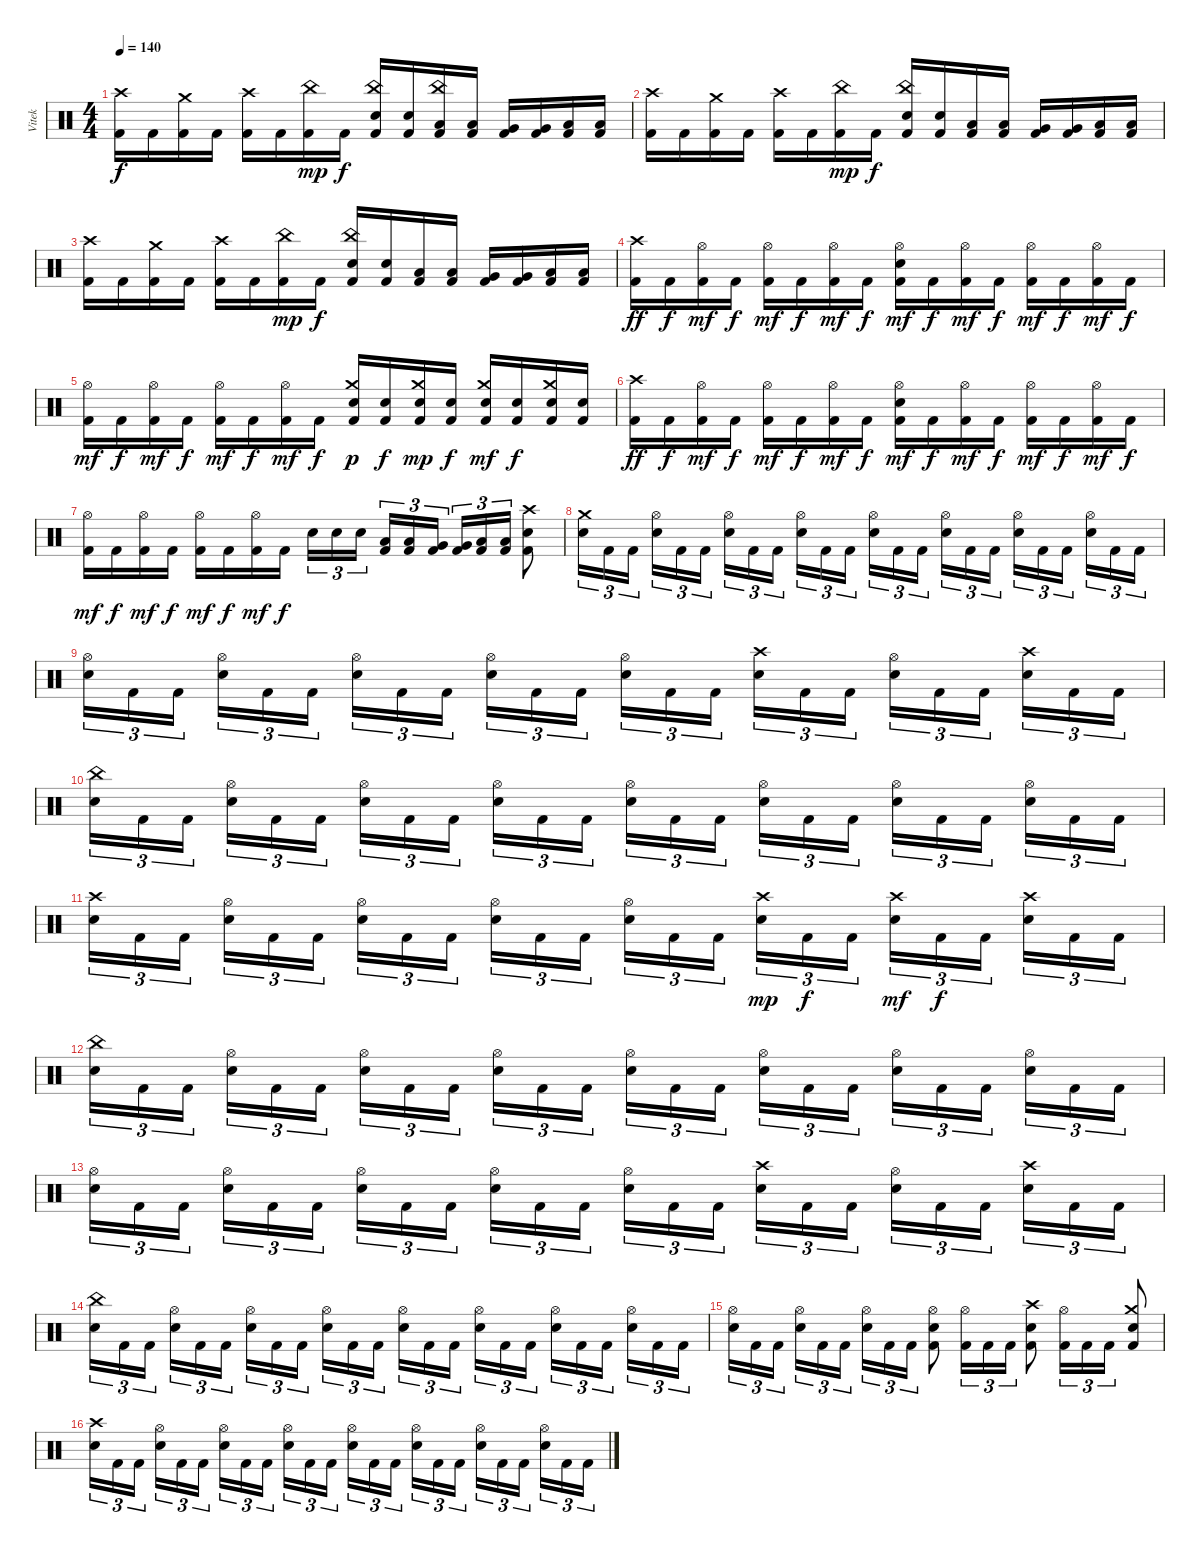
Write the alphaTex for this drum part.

\track ("Vitek" "Vitek") {instrument percussion}
\staff {score}
\articulation defaults
\ts (4 4)
\tempo 140
\clef neutral
\ks c
("Crash high (hit)" "Kick (hit) 2").16{dy f} "Kick (hit) 2".16 ("Crash medium (hit)" "Kick (hit) 2").16 "Kick (hit) 2".16 ("Crash high (hit)" "Kick (hit) 2").16 "Kick (hit) 2".16 ("China (hit)" "Kick (hit) 2").16{dy mp} "Kick (hit) 2".16{dy f} ("China (hit)" "Electric Snare (hit)" "Kick (hit) 2").16 ("Electric Snare (hit)" "Kick (hit) 2").16 ("China (hit)" "Low Tom (hit)" "Kick (hit) 2").16 ("Low Tom (hit)" "Kick (hit) 2").16 ("Very Low Tom (hit)" "Kick (hit) 2").16 ("Very Low Tom (hit)" "Kick (hit) 2").16 ("Low Floor Tom (hit)" "Kick (hit) 2").16 ("Low Floor Tom (hit)" "Kick (hit) 2").16 |
("Crash high (hit)" "Kick (hit) 2").16 "Kick (hit) 2".16 ("Crash medium (hit)" "Kick (hit) 2").16 "Kick (hit) 2".16 ("Crash high (hit)" "Kick (hit) 2").16 "Kick (hit) 2".16 ("China (hit)" "Kick (hit) 2").16{dy mp} "Kick (hit) 2".16{dy f} ("China (hit)" "Electric Snare (hit)" "Kick (hit) 2").16 ("Electric Snare (hit)" "Kick (hit) 2").16 ("Low Tom (hit)" "Kick (hit) 2").16 ("Low Tom (hit)" "Kick (hit) 2").16 ("Very Low Tom (hit)" "Kick (hit) 2").16 ("Very Low Tom (hit)" "Kick (hit) 2").16 ("Low Floor Tom (hit)" "Kick (hit) 2").16 ("Low Floor Tom (hit)" "Kick (hit) 2").16 |
("Crash high (hit)" "Kick (hit) 2").16 "Kick (hit) 2".16 ("Crash medium (hit)" "Kick (hit) 2").16 "Kick (hit) 2".16 ("Crash high (hit)" "Kick (hit) 2").16 "Kick (hit) 2".16 ("China (hit)" "Kick (hit) 2").16{dy mp} "Kick (hit) 2".16{dy f} ("China (hit)" "Electric Snare (hit)" "Kick (hit) 2").16 ("Electric Snare (hit)" "Kick (hit) 2").16 ("Low Tom (hit)" "Kick (hit) 2").16 ("Low Tom (hit)" "Kick (hit) 2").16 ("Very Low Tom (hit)" "Kick (hit) 2").16 ("Very Low Tom (hit)" "Kick (hit) 2").16 ("Low Floor Tom (hit)" "Kick (hit) 2").16 ("Low Floor Tom (hit)" "Kick (hit) 2").16 |
("Crash high (hit)" "Kick (hit) 2").16{dy ff volume 16} "Kick (hit) 2".16{dy f} ("Hi-Hat (open)" "Kick (hit) 2").16{dy mf} "Kick (hit) 2".16{dy f} ("Hi-Hat (open)" "Kick (hit) 2").16{dy mf} "Kick (hit) 2".16{dy f} ("Hi-Hat (open)" "Kick (hit) 2").16{dy mf} "Kick (hit) 2".16{dy f} ("Hi-Hat (open)" "Electric Snare (hit)" "Kick (hit) 2").16{dy mf} "Kick (hit) 2".16{dy f} ("Hi-Hat (open)" "Kick (hit) 2").16{dy mf} "Kick (hit) 2".16{dy f} ("Hi-Hat (open)" "Kick (hit) 2").16{dy mf} "Kick (hit) 2".16{dy f} ("Hi-Hat (open)" "Kick (hit) 2").16{dy mf} "Kick (hit) 2".16{dy f} |
("Hi-Hat (open)" "Kick (hit) 2").16{dy mf volume 16} "Kick (hit) 2".16{dy f} ("Hi-Hat (open)" "Kick (hit) 2").16{dy mf} "Kick (hit) 2".16{dy f} ("Hi-Hat (open)" "Kick (hit) 2").16{dy mf} "Kick (hit) 2".16{dy f} ("Hi-Hat (open)" "Kick (hit) 2").16{dy mf} "Kick (hit) 2".16{dy f} ("Crash medium (hit)" "Electric Snare (hit)" "Kick (hit) 2").16{dy p} ("Electric Snare (hit)" "Kick (hit) 2").16{dy f} ("Crash medium (hit)" "Electric Snare (hit)" "Kick (hit) 2").16{dy mp} ("Electric Snare (hit)" "Kick (hit) 2").16{dy f} ("Crash medium (hit)" "Electric Snare (hit)" "Kick (hit) 2").16{dy mf} ("Electric Snare (hit)" "Kick (hit) 2").16{dy f} ("Crash medium (hit)" "Electric Snare (hit)" "Kick (hit) 2").16 ("Electric Snare (hit)" "Kick (hit) 2").16 |
("Crash high (hit)" "Kick (hit) 2").16{dy ff volume 16} "Kick (hit) 2".16{dy f} ("Hi-Hat (open)" "Kick (hit) 2").16{dy mf} "Kick (hit) 2".16{dy f} ("Hi-Hat (open)" "Kick (hit) 2").16{dy mf} "Kick (hit) 2".16{dy f} ("Hi-Hat (open)" "Kick (hit) 2").16{dy mf} "Kick (hit) 2".16{dy f} ("Hi-Hat (open)" "Electric Snare (hit)" "Kick (hit) 2").16{dy mf} "Kick (hit) 2".16{dy f} ("Hi-Hat (open)" "Kick (hit) 2").16{dy mf} "Kick (hit) 2".16{dy f} ("Hi-Hat (open)" "Kick (hit) 2").16{dy mf} "Kick (hit) 2".16{dy f} ("Hi-Hat (open)" "Kick (hit) 2").16{dy mf} "Kick (hit) 2".16{dy f} |
("Hi-Hat (open)" "Kick (hit) 2").16{dy mf} "Kick (hit) 2".16{dy f} ("Hi-Hat (open)" "Kick (hit) 2").16{dy mf} "Kick (hit) 2".16{dy f} ("Hi-Hat (open)" "Kick (hit) 2").16{dy mf} "Kick (hit) 2".16{dy f} ("Hi-Hat (open)" "Kick (hit) 2").16{dy mf} "Kick (hit) 2".16{dy f} "Electric Snare (hit)".16{tu (3 2)} "Electric Snare (hit)".16{tu (3 2)} "Electric Snare (hit)".16{tu (3 2)} ("Low Tom (hit)" "Kick (hit) 2").16{tu (3 2)} ("Low Tom (hit)" "Kick (hit) 2").16{tu (3 2)} ("Very Low Tom (hit)" "Kick (hit) 2").16{tu (3 2)} ("Very Low Tom (hit)" "Kick (hit) 2").16{tu (3 2)} ("Low Floor Tom (hit)" "Kick (hit) 2").16{tu (3 2)} ("Low Floor Tom (hit)" "Kick (hit) 2").16{tu (3 2)} ("Crash high (hit)" "Electric Snare (hit)" "Kick (hit) 2").8 |
("Crash medium (hit)" "Electric Snare (hit)").16{tu (3 2)} "Kick (hit) 2".16{tu (3 2)} "Kick (hit) 2".16{tu (3 2)} ("Hi-Hat (open)" "Electric Snare (hit)").16{tu (3 2)} "Kick (hit) 2".16{tu (3 2)} "Kick (hit) 2".16{tu (3 2)} ("Hi-Hat (open)" "Electric Snare (hit)").16{tu (3 2)} "Kick (hit) 2".16{tu (3 2)} "Kick (hit) 2".16{tu (3 2)} ("Hi-Hat (open)" "Electric Snare (hit)").16{tu (3 2)} "Kick (hit) 2".16{tu (3 2)} "Kick (hit) 2".16{tu (3 2)} ("Hi-Hat (open)" "Electric Snare (hit)").16{tu (3 2)} "Kick (hit) 2".16{tu (3 2)} "Kick (hit) 2".16{tu (3 2)} ("Hi-Hat (open)" "Electric Snare (hit)").16{tu (3 2)} "Kick (hit) 2".16{tu (3 2)} "Kick (hit) 2".16{tu (3 2)} ("Hi-Hat (open)" "Electric Snare (hit)").16{tu (3 2)} "Kick (hit) 2".16{tu (3 2)} "Kick (hit) 2".16{tu (3 2)} ("Hi-Hat (open)" "Electric Snare (hit)").16{tu (3 2)} "Kick (hit) 2".16{tu (3 2)} "Kick (hit) 2".16{tu (3 2)} |
("Hi-Hat (open)" "Electric Snare (hit)").16{tu (3 2)} "Kick (hit) 2".16{tu (3 2)} "Kick (hit) 2".16{tu (3 2)} ("Hi-Hat (open)" "Electric Snare (hit)").16{tu (3 2)} "Kick (hit) 2".16{tu (3 2)} "Kick (hit) 2".16{tu (3 2)} ("Hi-Hat (open)" "Electric Snare (hit)").16{tu (3 2)} "Kick (hit) 2".16{tu (3 2)} "Kick (hit) 2".16{tu (3 2)} ("Hi-Hat (open)" "Electric Snare (hit)").16{tu (3 2)} "Kick (hit) 2".16{tu (3 2)} "Kick (hit) 2".16{tu (3 2)} ("Hi-Hat (open)" "Electric Snare (hit)").16{tu (3 2)} "Kick (hit) 2".16{tu (3 2)} "Kick (hit) 2".16{tu (3 2)} ("Crash high (hit)" "Electric Snare (hit)").16{tu (3 2)} "Kick (hit) 2".16{tu (3 2)} "Kick (hit) 2".16{tu (3 2)} ("Hi-Hat (open)" "Electric Snare (hit)").16{tu (3 2)} "Kick (hit) 2".16{tu (3 2)} "Kick (hit) 2".16{tu (3 2)} ("Crash high (hit)" "Electric Snare (hit)").16{tu (3 2)} "Kick (hit) 2".16{tu (3 2)} "Kick (hit) 2".16{tu (3 2)} |
("China (hit)" "Electric Snare (hit)").16{tu (3 2)} "Kick (hit) 2".16{tu (3 2)} "Kick (hit) 2".16{tu (3 2)} ("Hi-Hat (open)" "Electric Snare (hit)").16{tu (3 2)} "Kick (hit) 2".16{tu (3 2)} "Kick (hit) 2".16{tu (3 2)} ("Hi-Hat (open)" "Electric Snare (hit)").16{tu (3 2)} "Kick (hit) 2".16{tu (3 2)} "Kick (hit) 2".16{tu (3 2)} ("Hi-Hat (open)" "Electric Snare (hit)").16{tu (3 2)} "Kick (hit) 2".16{tu (3 2)} "Kick (hit) 2".16{tu (3 2)} ("Hi-Hat (open)" "Electric Snare (hit)").16{tu (3 2)} "Kick (hit) 2".16{tu (3 2)} "Kick (hit) 2".16{tu (3 2)} ("Hi-Hat (open)" "Electric Snare (hit)").16{tu (3 2)} "Kick (hit) 2".16{tu (3 2)} "Kick (hit) 2".16{tu (3 2)} ("Hi-Hat (open)" "Electric Snare (hit)").16{tu (3 2)} "Kick (hit) 2".16{tu (3 2)} "Kick (hit) 2".16{tu (3 2)} ("Hi-Hat (open)" "Electric Snare (hit)").16{tu (3 2)} "Kick (hit) 2".16{tu (3 2)} "Kick (hit) 2".16{tu (3 2)} |
("Crash high (hit)" "Electric Snare (hit)").16{tu (3 2)} "Kick (hit) 2".16{tu (3 2)} "Kick (hit) 2".16{tu (3 2)} ("Hi-Hat (open)" "Electric Snare (hit)").16{tu (3 2)} "Kick (hit) 2".16{tu (3 2)} "Kick (hit) 2".16{tu (3 2)} ("Hi-Hat (open)" "Electric Snare (hit)").16{tu (3 2)} "Kick (hit) 2".16{tu (3 2)} "Kick (hit) 2".16{tu (3 2)} ("Hi-Hat (open)" "Electric Snare (hit)").16{tu (3 2)} "Kick (hit) 2".16{tu (3 2)} "Kick (hit) 2".16{tu (3 2)} ("Hi-Hat (open)" "Electric Snare (hit)").16{tu (3 2)} "Kick (hit) 2".16{tu (3 2)} "Kick (hit) 2".16{tu (3 2)} ("Crash high (hit)" "Electric Snare (hit)").16{tu (3 2) dy mp} "Kick (hit) 2".16{tu (3 2) dy f} "Kick (hit) 2".16{tu (3 2)} ("Crash high (hit)" "Electric Snare (hit)").16{tu (3 2) dy mf} "Kick (hit) 2".16{tu (3 2) dy f} "Kick (hit) 2".16{tu (3 2)} ("Crash high (hit)" "Electric Snare (hit)").16{tu (3 2)} "Kick (hit) 2".16{tu (3 2)} "Kick (hit) 2".16{tu (3 2)} |
("China (hit)" "Electric Snare (hit)").16{tu (3 2)} "Kick (hit) 2".16{tu (3 2)} "Kick (hit) 2".16{tu (3 2)} ("Hi-Hat (open)" "Electric Snare (hit)").16{tu (3 2)} "Kick (hit) 2".16{tu (3 2)} "Kick (hit) 2".16{tu (3 2)} ("Hi-Hat (open)" "Electric Snare (hit)").16{tu (3 2)} "Kick (hit) 2".16{tu (3 2)} "Kick (hit) 2".16{tu (3 2)} ("Hi-Hat (open)" "Electric Snare (hit)").16{tu (3 2)} "Kick (hit) 2".16{tu (3 2)} "Kick (hit) 2".16{tu (3 2)} ("Hi-Hat (open)" "Electric Snare (hit)").16{tu (3 2)} "Kick (hit) 2".16{tu (3 2)} "Kick (hit) 2".16{tu (3 2)} ("Hi-Hat (open)" "Electric Snare (hit)").16{tu (3 2)} "Kick (hit) 2".16{tu (3 2)} "Kick (hit) 2".16{tu (3 2)} ("Hi-Hat (open)" "Electric Snare (hit)").16{tu (3 2)} "Kick (hit) 2".16{tu (3 2)} "Kick (hit) 2".16{tu (3 2)} ("Hi-Hat (open)" "Electric Snare (hit)").16{tu (3 2)} "Kick (hit) 2".16{tu (3 2)} "Kick (hit) 2".16{tu (3 2)} |
("Hi-Hat (open)" "Electric Snare (hit)").16{tu (3 2)} "Kick (hit) 2".16{tu (3 2)} "Kick (hit) 2".16{tu (3 2)} ("Hi-Hat (open)" "Electric Snare (hit)").16{tu (3 2)} "Kick (hit) 2".16{tu (3 2)} "Kick (hit) 2".16{tu (3 2)} ("Hi-Hat (open)" "Electric Snare (hit)").16{tu (3 2)} "Kick (hit) 2".16{tu (3 2)} "Kick (hit) 2".16{tu (3 2)} ("Hi-Hat (open)" "Electric Snare (hit)").16{tu (3 2)} "Kick (hit) 2".16{tu (3 2)} "Kick (hit) 2".16{tu (3 2)} ("Hi-Hat (open)" "Electric Snare (hit)").16{tu (3 2)} "Kick (hit) 2".16{tu (3 2)} "Kick (hit) 2".16{tu (3 2)} ("Crash high (hit)" "Electric Snare (hit)").16{tu (3 2)} "Kick (hit) 2".16{tu (3 2)} "Kick (hit) 2".16{tu (3 2)} ("Hi-Hat (open)" "Electric Snare (hit)").16{tu (3 2)} "Kick (hit) 2".16{tu (3 2)} "Kick (hit) 2".16{tu (3 2)} ("Crash high (hit)" "Electric Snare (hit)").16{tu (3 2)} "Kick (hit) 2".16{tu (3 2)} "Kick (hit) 2".16{tu (3 2)} |
("China (hit)" "Electric Snare (hit)").16{tu (3 2)} "Kick (hit) 2".16{tu (3 2)} "Kick (hit) 2".16{tu (3 2)} ("Hi-Hat (open)" "Electric Snare (hit)").16{tu (3 2)} "Kick (hit) 2".16{tu (3 2)} "Kick (hit) 2".16{tu (3 2)} ("Hi-Hat (open)" "Electric Snare (hit)").16{tu (3 2)} "Kick (hit) 2".16{tu (3 2)} "Kick (hit) 2".16{tu (3 2)} ("Hi-Hat (open)" "Electric Snare (hit)").16{tu (3 2)} "Kick (hit) 2".16{tu (3 2)} "Kick (hit) 2".16{tu (3 2)} ("Hi-Hat (open)" "Electric Snare (hit)").16{tu (3 2)} "Kick (hit) 2".16{tu (3 2)} "Kick (hit) 2".16{tu (3 2)} ("Hi-Hat (open)" "Electric Snare (hit)").16{tu (3 2)} "Kick (hit) 2".16{tu (3 2)} "Kick (hit) 2".16{tu (3 2)} ("Hi-Hat (open)" "Electric Snare (hit)").16{tu (3 2)} "Kick (hit) 2".16{tu (3 2)} "Kick (hit) 2".16{tu (3 2)} ("Hi-Hat (open)" "Electric Snare (hit)").16{tu (3 2)} "Kick (hit) 2".16{tu (3 2)} "Kick (hit) 2".16{tu (3 2)} |
("Hi-Hat (open)" "Electric Snare (hit)").16{tu (3 2)} "Kick (hit) 2".16{tu (3 2)} "Kick (hit) 2".16{tu (3 2)} ("Hi-Hat (open)" "Electric Snare (hit)").16{tu (3 2)} "Kick (hit) 2".16{tu (3 2)} "Kick (hit) 2".16{tu (3 2)} ("Hi-Hat (open)" "Electric Snare (hit)").16{tu (3 2)} "Kick (hit) 2".16{tu (3 2)} "Kick (hit) 2".16{tu (3 2)} ("Hi-Hat (open)" "Electric Snare (hit)" "Kick (hit) 2").8 ("Hi-Hat (open)" "Kick (hit) 2").16{tu (3 2)} "Kick (hit) 2".16{tu (3 2)} "Kick (hit) 2".16{tu (3 2)} ("Crash high (hit)" "Electric Snare (hit)" "Kick (hit) 2").8 ("Hi-Hat (open)" "Kick (hit) 2").16{tu (3 2)} "Kick (hit) 2".16{tu (3 2)} "Kick (hit) 2".16{tu (3 2)} ("Crash medium (hit)" "Electric Snare (hit)" "Kick (hit) 2").8 |
("Crash high (hit)" "Electric Snare (hit)").16{tu (3 2)} "Kick (hit) 2".16{tu (3 2)} "Kick (hit) 2".16{tu (3 2)} ("Hi-Hat (open)" "Electric Snare (hit)").16{tu (3 2)} "Kick (hit) 2".16{tu (3 2)} "Kick (hit) 2".16{tu (3 2)} ("Hi-Hat (open)" "Electric Snare (hit)").16{tu (3 2)} "Kick (hit) 2".16{tu (3 2)} "Kick (hit) 2".16{tu (3 2)} ("Hi-Hat (open)" "Electric Snare (hit)").16{tu (3 2)} "Kick (hit) 2".16{tu (3 2)} "Kick (hit) 2".16{tu (3 2)} ("Hi-Hat (open)" "Electric Snare (hit)").16{tu (3 2)} "Kick (hit) 2".16{tu (3 2)} "Kick (hit) 2".16{tu (3 2)} ("Hi-Hat (open)" "Electric Snare (hit)").16{tu (3 2)} "Kick (hit) 2".16{tu (3 2)} "Kick (hit) 2".16{tu (3 2)} ("Hi-Hat (open)" "Electric Snare (hit)").16{tu (3 2)} "Kick (hit) 2".16{tu (3 2)} "Kick (hit) 2".16{tu (3 2)} ("Hi-Hat (open)" "Electric Snare (hit)").16{tu (3 2)} "Kick (hit) 2".16{tu (3 2)} "Kick (hit) 2".16{tu (3 2)}
